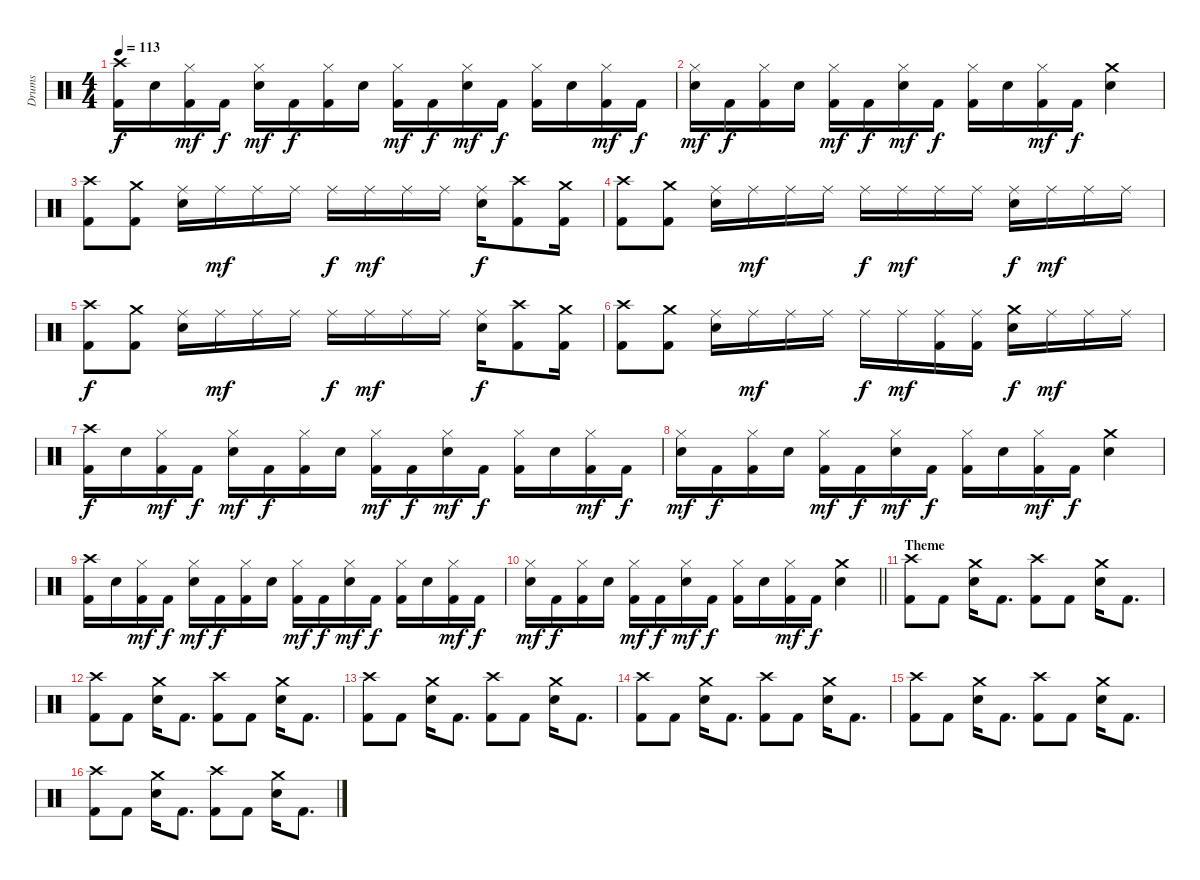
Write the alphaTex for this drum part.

\track ("Drums" "Drums") {instrument percussion}
\staff {score}
\articulation defaults
\ts (4 4)
\tempo 113
\clef neutral
\ks c
("Kick (hit) 2" "Crash high (hit)").16{dy f} "Electric Snare (hit)".16 ("Kick (hit) 2" "Hi-Hat (closed)").16{dy mf} "Kick (hit) 2".16{dy f} ("Hi-Hat (closed)" "Electric Snare (hit)").16{dy mf} "Kick (hit) 2".16{dy f} ("Kick (hit) 2" "Hi-Hat (closed)").16 "Electric Snare (hit)".16 ("Kick (hit) 2" "Hi-Hat (closed)").16{dy mf} "Kick (hit) 2".16{dy f} ("Hi-Hat (closed)" "Electric Snare (hit)").16{dy mf} "Kick (hit) 2".16{dy f} ("Kick (hit) 2" "Hi-Hat (closed)").16 "Electric Snare (hit)".16 ("Kick (hit) 2" "Hi-Hat (closed)").16{dy mf} "Kick (hit) 2".16{dy f} |
("Hi-Hat (closed)" "Electric Snare (hit)").16{dy mf} "Kick (hit) 2".16{dy f} ("Kick (hit) 2" "Hi-Hat (closed)").16 "Electric Snare (hit)".16 ("Kick (hit) 2" "Hi-Hat (closed)").16{dy mf} "Kick (hit) 2".16{dy f} ("Hi-Hat (closed)" "Electric Snare (hit)").16{dy mf} "Kick (hit) 2".16{dy f} ("Kick (hit) 2" "Hi-Hat (closed)").16 "Electric Snare (hit)".16 ("Kick (hit) 2" "Hi-Hat (closed)").16{dy mf} "Kick (hit) 2".16{dy f} ("Crash medium (hit)" "Electric Snare (hit)").4 |
("Kick (hit) 2" "Crash high (hit)").8 ("Kick (hit) 2" "Crash medium (hit)").8 ("Ride (middle)" "Electric Snare (hit)").16 "Ride (middle)".16{dy mf} "Ride (middle)".16 "Ride (middle)".16 "Ride (middle)".16{dy f} "Ride (middle)".16{dy mf} "Ride (middle)".16 "Ride (middle)".16 ("Ride (middle)" "Electric Snare (hit)").16{dy f} ("Kick (hit) 2" "Crash high (hit)").8 ("Kick (hit) 2" "Crash medium (hit)").16 |
("Kick (hit) 2" "Crash high (hit)").8 ("Kick (hit) 2" "Crash medium (hit)").8 ("Ride (middle)" "Electric Snare (hit)").16 "Ride (middle)".16{dy mf} "Ride (middle)".16 "Ride (middle)".16 "Ride (middle)".16{dy f} "Ride (middle)".16{dy mf} "Ride (middle)".16 "Ride (middle)".16 ("Ride (middle)" "Electric Snare (hit)").16{dy f} "Ride (middle)".16{dy mf} "Ride (middle)".16 "Ride (middle)".16 |
("Kick (hit) 2" "Crash high (hit)").8{dy f} ("Kick (hit) 2" "Crash medium (hit)").8 ("Ride (middle)" "Electric Snare (hit)").16 "Ride (middle)".16{dy mf} "Ride (middle)".16 "Ride (middle)".16 "Ride (middle)".16{dy f} "Ride (middle)".16{dy mf} "Ride (middle)".16 "Ride (middle)".16 ("Ride (middle)" "Electric Snare (hit)").16{dy f} ("Kick (hit) 2" "Crash high (hit)").8 ("Kick (hit) 2" "Crash medium (hit)").16 |
("Kick (hit) 2" "Crash high (hit)").8 ("Kick (hit) 2" "Crash medium (hit)").8 ("Ride (middle)" "Electric Snare (hit)").16 "Ride (middle)".16{dy mf} "Ride (middle)".16 "Ride (middle)".16 "Ride (middle)".16{dy f} "Ride (middle)".16{dy mf} ("Kick (hit) 2" "Ride (middle)").16 ("Kick (hit) 2" "Ride (middle)").16 ("Crash medium (hit)" "Electric Snare (hit)").16{dy f} "Ride (middle)".16{dy mf} "Ride (middle)".16 "Ride (middle)".16 |
("Kick (hit) 2" "Crash high (hit)").16{dy f} "Electric Snare (hit)".16 ("Kick (hit) 2" "Hi-Hat (closed)").16{dy mf} "Kick (hit) 2".16{dy f} ("Hi-Hat (closed)" "Electric Snare (hit)").16{dy mf} "Kick (hit) 2".16{dy f} ("Kick (hit) 2" "Hi-Hat (closed)").16 "Electric Snare (hit)".16 ("Kick (hit) 2" "Hi-Hat (closed)").16{dy mf} "Kick (hit) 2".16{dy f} ("Hi-Hat (closed)" "Electric Snare (hit)").16{dy mf} "Kick (hit) 2".16{dy f} ("Kick (hit) 2" "Hi-Hat (closed)").16 "Electric Snare (hit)".16 ("Kick (hit) 2" "Hi-Hat (closed)").16{dy mf} "Kick (hit) 2".16{dy f} |
("Hi-Hat (closed)" "Electric Snare (hit)").16{dy mf} "Kick (hit) 2".16{dy f} ("Kick (hit) 2" "Hi-Hat (closed)").16 "Electric Snare (hit)".16 ("Kick (hit) 2" "Hi-Hat (closed)").16{dy mf} "Kick (hit) 2".16{dy f} ("Hi-Hat (closed)" "Electric Snare (hit)").16{dy mf} "Kick (hit) 2".16{dy f} ("Kick (hit) 2" "Hi-Hat (closed)").16 "Electric Snare (hit)".16 ("Kick (hit) 2" "Hi-Hat (closed)").16{dy mf} "Kick (hit) 2".16{dy f} ("Crash medium (hit)" "Electric Snare (hit)").4 |
("Kick (hit) 2" "Crash high (hit)").16 "Electric Snare (hit)".16 ("Kick (hit) 2" "Hi-Hat (closed)").16{dy mf} "Kick (hit) 2".16{dy f} ("Hi-Hat (closed)" "Electric Snare (hit)").16{dy mf} "Kick (hit) 2".16{dy f} ("Kick (hit) 2" "Hi-Hat (closed)").16 "Electric Snare (hit)".16 ("Kick (hit) 2" "Hi-Hat (closed)").16{dy mf} "Kick (hit) 2".16{dy f} ("Hi-Hat (closed)" "Electric Snare (hit)").16{dy mf} "Kick (hit) 2".16{dy f} ("Kick (hit) 2" "Hi-Hat (closed)").16 "Electric Snare (hit)".16 ("Kick (hit) 2" "Hi-Hat (closed)").16{dy mf} "Kick (hit) 2".16{dy f} |
\barLineRight lightlight
("Hi-Hat (closed)" "Electric Snare (hit)").16{dy mf} "Kick (hit) 2".16{dy f} ("Kick (hit) 2" "Hi-Hat (closed)").16 "Electric Snare (hit)".16 ("Kick (hit) 2" "Hi-Hat (closed)").16{dy mf} "Kick (hit) 2".16{dy f} ("Hi-Hat (closed)" "Electric Snare (hit)").16{dy mf} "Kick (hit) 2".16{dy f} ("Kick (hit) 2" "Hi-Hat (closed)").16 "Electric Snare (hit)".16 ("Kick (hit) 2" "Hi-Hat (closed)").16{dy mf} "Kick (hit) 2".16{dy f} ("Crash medium (hit)" "Electric Snare (hit)").4 |
\section ("" "Theme")
("Kick (hit) 2" "Crash high (hit)").8 "Kick (hit) 2".8 ("Crash medium (hit)" "Electric Snare (hit)").16 "Kick (hit) 2".8{d} ("Kick (hit) 2" "Crash high (hit)").8 "Kick (hit) 2".8 ("Crash medium (hit)" "Electric Snare (hit)").16 "Kick (hit) 2".8{d} |
("Kick (hit) 2" "Crash high (hit)").8 "Kick (hit) 2".8 ("Crash medium (hit)" "Electric Snare (hit)").16 "Kick (hit) 2".8{d} ("Kick (hit) 2" "Crash high (hit)").8 "Kick (hit) 2".8 ("Crash medium (hit)" "Electric Snare (hit)").16 "Kick (hit) 2".8{d} |
("Kick (hit) 2" "Crash high (hit)").8 "Kick (hit) 2".8 ("Crash medium (hit)" "Electric Snare (hit)").16 "Kick (hit) 2".8{d} ("Kick (hit) 2" "Crash high (hit)").8 "Kick (hit) 2".8 ("Crash medium (hit)" "Electric Snare (hit)").16 "Kick (hit) 2".8{d} |
("Kick (hit) 2" "Crash high (hit)").8 "Kick (hit) 2".8 ("Crash medium (hit)" "Electric Snare (hit)").16 "Kick (hit) 2".8{d} ("Kick (hit) 2" "Crash high (hit)").8 "Kick (hit) 2".8 ("Crash medium (hit)" "Electric Snare (hit)").16 "Kick (hit) 2".8{d} |
("Kick (hit) 2" "Crash high (hit)").8 "Kick (hit) 2".8 ("Crash medium (hit)" "Electric Snare (hit)").16 "Kick (hit) 2".8{d} ("Kick (hit) 2" "Crash high (hit)").8 "Kick (hit) 2".8 ("Crash medium (hit)" "Electric Snare (hit)").16 "Kick (hit) 2".8{d} |
("Kick (hit) 2" "Crash high (hit)").8 "Kick (hit) 2".8 ("Crash medium (hit)" "Electric Snare (hit)").16 "Kick (hit) 2".8{d} ("Kick (hit) 2" "Crash high (hit)").8 "Kick (hit) 2".8 ("Crash medium (hit)" "Electric Snare (hit)").16 "Kick (hit) 2".8{d}
